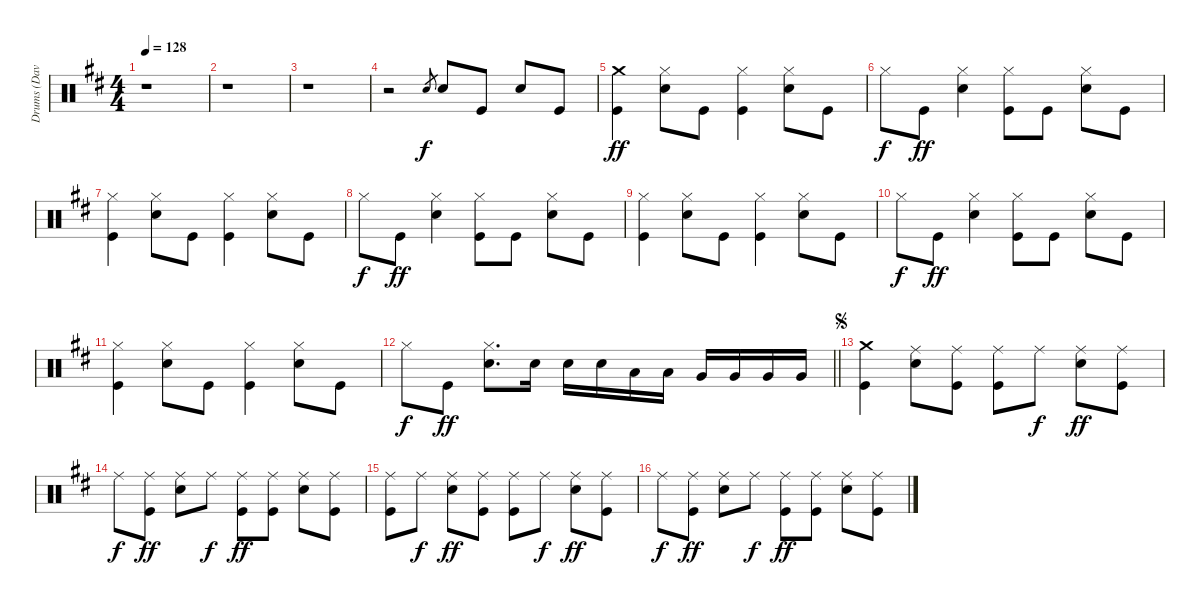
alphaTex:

\track ("Drums (Dave)" "Drums (Dav") {instrument percussion}
\staff {score}
\articulation defaults
\ts (4 4)
\tempo 128
\clef neutral
\ks d
r.1{dy f} |
r.1 |
r.1 |
r.2 "Electric Snare (hit)".8{gr} "Electric Snare (hit)".8 "Kick (hit)".8 "Electric Snare (hit)".8 "Kick (hit)".8 |
("Crash medium (hit)" "Kick (hit)").4{dy ff} ("Hi-Hat (closed)" "Electric Snare (hit)").8 "Kick (hit)".8 ("Hi-Hat (closed)" "Kick (hit)").4 ("Hi-Hat (closed)" "Electric Snare (hit)").8 "Kick (hit)".8 |
"Hi-Hat (closed)".8{dy f} "Kick (hit)".8{dy ff} ("Hi-Hat (closed)" "Electric Snare (hit)").4 ("Hi-Hat (closed)" "Kick (hit)").8 "Kick (hit)".8 ("Hi-Hat (closed)" "Electric Snare (hit)").8 "Kick (hit)".8 |
("Hi-Hat (closed)" "Kick (hit)").4 ("Hi-Hat (closed)" "Electric Snare (hit)").8 "Kick (hit)".8 ("Hi-Hat (closed)" "Kick (hit)").4 ("Hi-Hat (closed)" "Electric Snare (hit)").8 "Kick (hit)".8 |
"Hi-Hat (closed)".8{dy f} "Kick (hit)".8{dy ff} ("Hi-Hat (closed)" "Electric Snare (hit)").4 ("Hi-Hat (closed)" "Kick (hit)").8 "Kick (hit)".8 ("Hi-Hat (closed)" "Electric Snare (hit)").8 "Kick (hit)".8 |
("Hi-Hat (closed)" "Kick (hit)").4 ("Hi-Hat (closed)" "Electric Snare (hit)").8 "Kick (hit)".8 ("Hi-Hat (closed)" "Kick (hit)").4 ("Hi-Hat (closed)" "Electric Snare (hit)").8 "Kick (hit)".8 |
"Hi-Hat (closed)".8{dy f} "Kick (hit)".8{dy ff} ("Hi-Hat (closed)" "Electric Snare (hit)").4 ("Hi-Hat (closed)" "Kick (hit)").8 "Kick (hit)".8 ("Hi-Hat (closed)" "Electric Snare (hit)").8 "Kick (hit)".8 |
("Hi-Hat (closed)" "Kick (hit)").4 ("Hi-Hat (closed)" "Electric Snare (hit)").8 "Kick (hit)".8 ("Hi-Hat (closed)" "Kick (hit)").4 ("Hi-Hat (closed)" "Electric Snare (hit)").8 "Kick (hit)".8 |
\barLineRight lightlight "Hi-Hat (closed)".8{dy f} "Kick (hit)".8{dy ff}
("Hi-Hat (closed)" "Electric Snare (hit)").8{d} "Electric Snare (hit)".16 "Electric Snare (hit)".16 "Electric Snare (hit)".16 "Low Tom (hit)".16 "Low Tom (hit)".16 "Very Low Tom (hit)".16 "Very Low Tom (hit)".16 "Very Low Tom (hit)".16 "Very Low Tom (hit)".16 |
\section ("" "")
\jump segno
("Crash medium (hit)" "Kick (hit)").4 ("Ride (middle)" "Electric Snare (hit)").8 ("Ride (middle)" "Kick (hit)").8 ("Ride (middle)" "Kick (hit)").8 "Ride (middle)".8{dy f} ("Ride (middle)" "Electric Snare (hit)").8{dy ff} ("Ride (middle)" "Kick (hit)").8 |
"Ride (middle)".8{dy f} ("Ride (middle)" "Kick (hit)").8{dy ff} ("Ride (middle)" "Electric Snare (hit)").8 "Ride (middle)".8{dy f} ("Ride (middle)" "Kick (hit)").8{dy ff} ("Ride (middle)" "Kick (hit)").8 ("Ride (middle)" "Electric Snare (hit)").8 ("Ride (middle)" "Kick (hit)").8 |
("Ride (middle)" "Kick (hit)").8 "Ride (middle)".8{dy f} ("Ride (middle)" "Electric Snare (hit)").8{dy ff} ("Ride (middle)" "Kick (hit)").8 ("Ride (middle)" "Kick (hit)").8 "Ride (middle)".8{dy f} ("Ride (middle)" "Electric Snare (hit)").8{dy ff} ("Ride (middle)" "Kick (hit)").8 |
"Ride (middle)".8{dy f} ("Ride (middle)" "Kick (hit)").8{dy ff} ("Ride (middle)" "Electric Snare (hit)").8 "Ride (middle)".8{dy f} ("Ride (middle)" "Kick (hit)").8{dy ff} ("Ride (middle)" "Kick (hit)").8 ("Ride (middle)" "Electric Snare (hit)").8 ("Ride (middle)" "Kick (hit)").8
